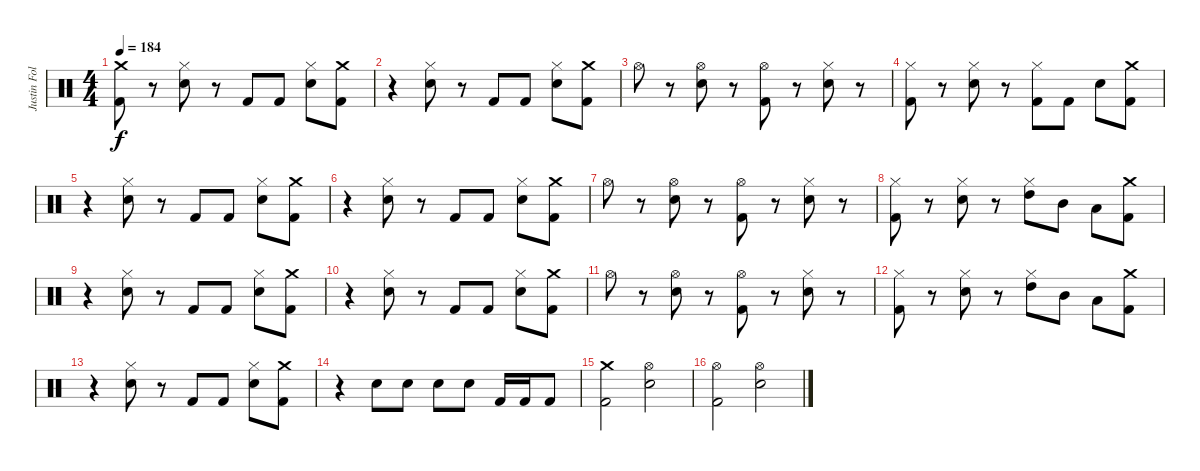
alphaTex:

\track ("Justin Foley" "Justin Fol") {instrument percussion}
\staff {score}
\articulation defaults
\ts (4 4)
\tempo 184
\clef neutral
\ks c
("Crash medium (hit)" "Kick (hit) 2").8{dy f} r.8 ("Hi-Hat (closed)" "Electric Snare (hit)").8 r.8 "Kick (hit) 2".8 "Kick (hit) 2".8 ("Hi-Hat (closed)" "Electric Snare (hit)").8 ("Crash medium (hit)" "Kick (hit) 2").8 |
r.4 ("Hi-Hat (closed)" "Electric Snare (hit)").8 r.8 "Kick (hit) 2".8 "Kick (hit) 2".8 ("Hi-Hat (closed)" "Electric Snare (hit)").8 ("Crash medium (hit)" "Kick (hit) 2").8 |
"Hi-Hat (open)".8 r.8 ("Hi-Hat (open)" "Electric Snare (hit)").8 r.8 ("Hi-Hat (open)" "Kick (hit) 2").8 r.8 ("Hi-Hat (closed)" "Electric Snare (hit)").8 r.8 |
("Hi-Hat (closed)" "Kick (hit) 2").8 r.8 ("Hi-Hat (closed)" "Electric Snare (hit)").8 r.8 ("Hi-Hat (closed)" "Kick (hit) 2").8 "Kick (hit) 2".8 "Electric Snare (hit)".8 ("Crash medium (hit)" "Kick (hit) 2").8 |
r.4 ("Hi-Hat (closed)" "Electric Snare (hit)").8 r.8 "Kick (hit) 2".8 "Kick (hit) 2".8 ("Hi-Hat (closed)" "Electric Snare (hit)").8 ("Crash medium (hit)" "Kick (hit) 2").8 |
r.4 ("Hi-Hat (closed)" "Electric Snare (hit)").8 r.8 "Kick (hit) 2".8 "Kick (hit) 2".8 ("Hi-Hat (closed)" "Electric Snare (hit)").8 ("Crash medium (hit)" "Kick (hit) 2").8 |
"Hi-Hat (open)".8 r.8 ("Hi-Hat (open)" "Electric Snare (hit)").8 r.8 ("Hi-Hat (open)" "Kick (hit) 2").8 r.8 ("Hi-Hat (closed)" "Electric Snare (hit)").8 r.8 |
("Hi-Hat (closed)" "Kick (hit) 2").8 r.8 ("Hi-Hat (closed)" "Electric Snare (hit)").8 r.8 ("Hi-Hat (closed)" "High Tom (hit)").8 "Mid Tom (hit)".8 "Low Tom (hit)".8 ("Crash medium (hit)" "Kick (hit) 2").8 |
r.4 ("Hi-Hat (closed)" "Electric Snare (hit)").8 r.8 "Kick (hit) 2".8 "Kick (hit) 2".8 ("Hi-Hat (closed)" "Electric Snare (hit)").8 ("Crash medium (hit)" "Kick (hit) 2").8 |
r.4 ("Hi-Hat (closed)" "Electric Snare (hit)").8 r.8 "Kick (hit) 2".8 "Kick (hit) 2".8 ("Hi-Hat (closed)" "Electric Snare (hit)").8 ("Crash medium (hit)" "Kick (hit) 2").8 |
"Hi-Hat (open)".8 r.8 ("Hi-Hat (open)" "Electric Snare (hit)").8 r.8 ("Hi-Hat (open)" "Kick (hit) 2").8 r.8 ("Hi-Hat (closed)" "Electric Snare (hit)").8 r.8 |
("Hi-Hat (closed)" "Kick (hit) 2").8 r.8 ("Hi-Hat (closed)" "Electric Snare (hit)").8 r.8 ("Hi-Hat (closed)" "High Tom (hit)").8 "Mid Tom (hit)".8 "Low Tom (hit)".8 ("Crash medium (hit)" "Kick (hit) 2").8 |
r.4 ("Hi-Hat (closed)" "Electric Snare (hit)").8 r.8 "Kick (hit) 2".8 "Kick (hit) 2".8 ("Hi-Hat (closed)" "Electric Snare (hit)").8 ("Crash medium (hit)" "Kick (hit) 2").8 |
r.4 "Electric Snare (hit)".8 "Electric Snare (hit)".8 "Electric Snare (hit)".8 "Electric Snare (hit)".8 "Kick (hit) 2".16 "Kick (hit) 2".16 "Kick (hit) 2".8 |
("Crash medium (hit)" "Kick (hit) 2").2 ("Hi-Hat (open)" "Electric Snare (hit)").2 |
("Hi-Hat (open)" "Kick (hit) 2").2 ("Hi-Hat (open)" "Electric Snare (hit)").2
